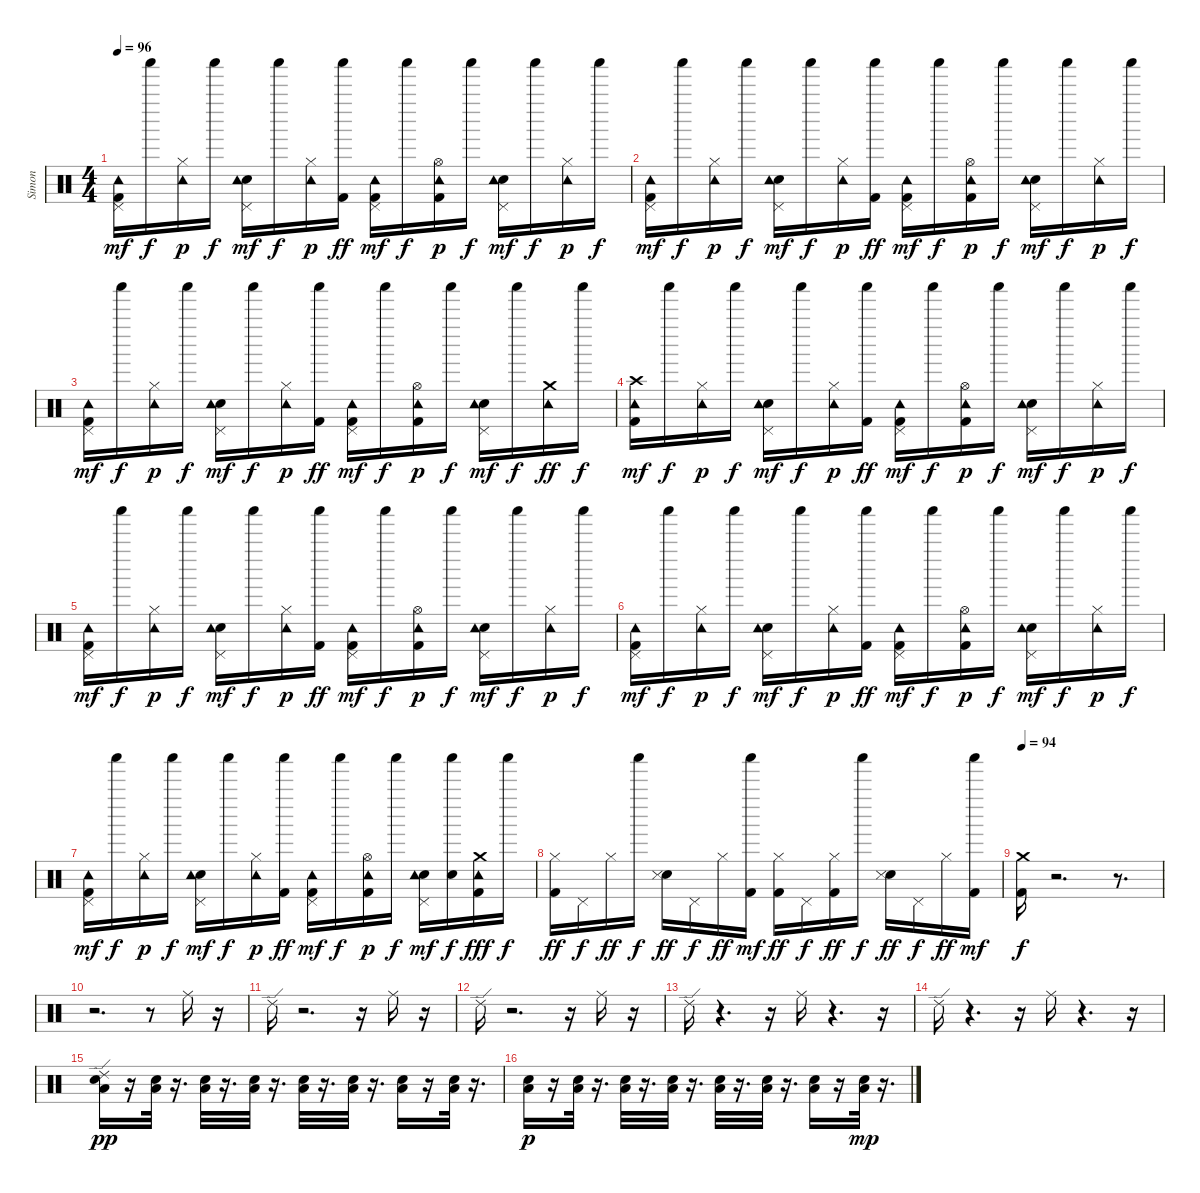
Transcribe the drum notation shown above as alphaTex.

\track ("Simon" "Simon") {instrument percussion}
\staff {score}
\articulation defaults
\ts (4 4)
\tempo 96
\clef neutral
\ks c
("Kick (hit) 2" "Pedal Hi-Hat (hit)" "Tambourine (hit)").16{dy mf} "Shaker (hit)".16{dy f} ("Hi-Hat (closed)" "Tambourine (hit)").16{dy p} "Shaker (hit)".16{dy f} ("Snare (hit) 2" "Pedal Hi-Hat (hit)" "Tambourine (hit)").16{dy mf} "Shaker (hit)".16{dy f} ("Hi-Hat (closed)" "Tambourine (hit)").16{dy p} ("Shaker (hit)" "Kick (hit) 2").16{dy ff} ("Kick (hit) 2" "Pedal Hi-Hat (hit)" "Tambourine (hit)").16{dy mf} "Shaker (hit)".16{dy f} ("Kick (hit) 2" "Hi-Hat (open)" "Tambourine (hit)").16{dy p} "Shaker (hit)".16{dy f} ("Snare (hit) 2" "Pedal Hi-Hat (hit)" "Tambourine (hit)").16{dy mf} "Shaker (hit)".16{dy f} ("Hi-Hat (closed)" "Tambourine (hit)").16{dy p} "Shaker (hit)".16{dy f} |
("Kick (hit) 2" "Tambourine (hit)" "Pedal Hi-Hat (hit)").16{dy mf} "Shaker (hit)".16{dy f} ("Hi-Hat (closed)" "Tambourine (hit)").16{dy p} "Shaker (hit)".16{dy f} ("Snare (hit) 2" "Pedal Hi-Hat (hit)" "Tambourine (hit)").16{dy mf} "Shaker (hit)".16{dy f} ("Hi-Hat (closed)" "Tambourine (hit)").16{dy p} ("Shaker (hit)" "Kick (hit) 2").16{dy ff} ("Kick (hit) 2" "Pedal Hi-Hat (hit)" "Tambourine (hit)").16{dy mf} "Shaker (hit)".16{dy f} ("Kick (hit) 2" "Hi-Hat (open)" "Tambourine (hit)").16{dy p} "Shaker (hit)".16{dy f} ("Snare (hit) 2" "Pedal Hi-Hat (hit)" "Tambourine (hit)").16{dy mf} "Shaker (hit)".16{dy f} ("Hi-Hat (closed)" "Tambourine (hit)").16{dy p} "Shaker (hit)".16{dy f} |
("Kick (hit) 2" "Pedal Hi-Hat (hit)" "Tambourine (hit)").16{dy mf} "Shaker (hit)".16{dy f} ("Hi-Hat (closed)" "Tambourine (hit)").16{dy p} "Shaker (hit)".16{dy f} ("Snare (hit) 2" "Pedal Hi-Hat (hit)" "Tambourine (hit)").16{dy mf} "Shaker (hit)".16{dy f} ("Hi-Hat (closed)" "Tambourine (hit)").16{dy p} ("Shaker (hit)" "Kick (hit) 2").16{dy ff} ("Kick (hit) 2" "Pedal Hi-Hat (hit)" "Tambourine (hit)").16{dy mf} "Shaker (hit)".16{dy f} ("Kick (hit) 2" "Hi-Hat (open)" "Tambourine (hit)").16{dy p} "Shaker (hit)".16{dy f} ("Snare (hit) 2" "Pedal Hi-Hat (hit)" "Tambourine (hit)").16{dy mf} "Shaker (hit)".16{dy f} ("Tambourine (hit)" "Crash medium (hit)").16{dy ff} "Shaker (hit)".16{dy f} |
("Kick (hit) 2" "Crash high (hit)" "Tambourine (hit)").16{dy mf} "Shaker (hit)".16{dy f} ("Hi-Hat (closed)" "Tambourine (hit)").16{dy p} "Shaker (hit)".16{dy f} ("Snare (hit) 2" "Pedal Hi-Hat (hit)" "Tambourine (hit)").16{dy mf} "Shaker (hit)".16{dy f} ("Hi-Hat (closed)" "Tambourine (hit)").16{dy p} ("Shaker (hit)" "Kick (hit) 2").16{dy ff} ("Kick (hit) 2" "Pedal Hi-Hat (hit)" "Tambourine (hit)").16{dy mf} "Shaker (hit)".16{dy f} ("Kick (hit) 2" "Hi-Hat (open)" "Tambourine (hit)").16{dy p} "Shaker (hit)".16{dy f} ("Snare (hit) 2" "Pedal Hi-Hat (hit)" "Tambourine (hit)").16{dy mf} "Shaker (hit)".16{dy f} ("Hi-Hat (closed)" "Tambourine (hit)").16{dy p} "Shaker (hit)".16{dy f} |
("Kick (hit) 2" "Pedal Hi-Hat (hit)" "Tambourine (hit)").16{dy mf} "Shaker (hit)".16{dy f} ("Hi-Hat (closed)" "Tambourine (hit)").16{dy p} "Shaker (hit)".16{dy f} ("Snare (hit) 2" "Pedal Hi-Hat (hit)" "Tambourine (hit)").16{dy mf} "Shaker (hit)".16{dy f} ("Hi-Hat (closed)" "Tambourine (hit)").16{dy p} ("Shaker (hit)" "Kick (hit) 2").16{dy ff} ("Kick (hit) 2" "Pedal Hi-Hat (hit)" "Tambourine (hit)").16{dy mf} "Shaker (hit)".16{dy f} ("Kick (hit) 2" "Hi-Hat (open)" "Tambourine (hit)").16{dy p} "Shaker (hit)".16{dy f} ("Snare (hit) 2" "Pedal Hi-Hat (hit)" "Tambourine (hit)").16{dy mf} "Shaker (hit)".16{dy f} ("Hi-Hat (closed)" "Tambourine (hit)").16{dy p} "Shaker (hit)".16{dy f} |
("Kick (hit) 2" "Tambourine (hit)" "Pedal Hi-Hat (hit)").16{dy mf} "Shaker (hit)".16{dy f} ("Hi-Hat (closed)" "Tambourine (hit)").16{dy p} "Shaker (hit)".16{dy f} ("Snare (hit) 2" "Pedal Hi-Hat (hit)" "Tambourine (hit)").16{dy mf} "Shaker (hit)".16{dy f} ("Hi-Hat (closed)" "Tambourine (hit)").16{dy p} ("Shaker (hit)" "Kick (hit) 2").16{dy ff} ("Kick (hit) 2" "Pedal Hi-Hat (hit)" "Tambourine (hit)").16{dy mf} "Shaker (hit)".16{dy f} ("Kick (hit) 2" "Hi-Hat (open)" "Tambourine (hit)").16{dy p} "Shaker (hit)".16{dy f} ("Snare (hit) 2" "Pedal Hi-Hat (hit)" "Tambourine (hit)").16{dy mf} "Shaker (hit)".16{dy f} ("Hi-Hat (closed)" "Tambourine (hit)").16{dy p} "Shaker (hit)".16{dy f} |
("Kick (hit) 2" "Pedal Hi-Hat (hit)" "Tambourine (hit)").16{dy mf} "Shaker (hit)".16{dy f} ("Hi-Hat (closed)" "Tambourine (hit)").16{dy p} "Shaker (hit)".16{dy f} ("Snare (hit) 2" "Pedal Hi-Hat (hit)" "Tambourine (hit)").16{dy mf} "Shaker (hit)".16{dy f} ("Hi-Hat (closed)" "Tambourine (hit)").16{dy p} ("Shaker (hit)" "Kick (hit) 2").16{dy ff} ("Kick (hit) 2" "Pedal Hi-Hat (hit)" "Tambourine (hit)").16{dy mf} "Shaker (hit)".16{dy f} ("Kick (hit) 2" "Hi-Hat (open)" "Tambourine (hit)").16{dy p} "Shaker (hit)".16{dy f} ("Snare (hit) 2" "Pedal Hi-Hat (hit)" "Tambourine (hit)").16{dy mf} ("Shaker (hit)" "Snare (hit) 2").16{dy f} ("Tambourine (hit)" "Crash medium (hit)" "Kick (hit) 2").16{dy fff} "Shaker (hit)".16{dy f} |
("Hi-Hat (closed)" "Kick (hit) 2").16{dy ff} "Pedal Hi-Hat (hit)".16{dy f} "Hi-Hat (closed)".16{dy ff} "Shaker (hit)".16{dy f} ("Electric Snare (hit)" "Snare (side stick) 3").16{dy ff} "Pedal Hi-Hat (hit)".16{dy f} "Hi-Hat (closed)".16{dy ff} ("Shaker (hit)" "Kick (hit) 2").16{dy mf} ("Hi-Hat (closed)" "Kick (hit) 2").16{dy ff} "Pedal Hi-Hat (hit)".16{dy f} ("Hi-Hat (closed)" "Kick (hit) 2").16{dy ff} "Shaker (hit)".16{dy f} ("Electric Snare (hit)" "Snare (side stick) 3").16{dy ff} "Pedal Hi-Hat (hit)".16{dy f} "Hi-Hat (closed)".16{dy ff} ("Shaker (hit)" "Kick (hit) 2").16{dy mf} |
\tempo 94
("Kick (hit) 2" "Crash medium (hit)").16{dy f} r.2{d} r.8{d} |
r.2{d} r.8 "Ride (middle)".16 r.16 |
"Ride (edge) 2".16 r.2{d} r.16 "Ride (middle)".16 r.16 |
"Ride (edge) 2".16 r.2{d} r.16 "Ride (middle)".16 r.16 |
"Ride (edge) 2".16 r.4{d} r.16 "Ride (middle)".16 r.4{d} r.16 |
"Ride (edge) 2".16 r.4{d} r.16 "Ride (middle)".16 r.4{d} r.16 |
("Ride (edge) 2" "Electric Snare (hit)" "Low Tom (hit)").16{dy pp} r.16 ("Electric Snare (hit)" "Low Tom (hit)").32 r.16{d} ("Electric Snare (hit)" "Low Tom (hit)").32 r.16{d} ("Electric Snare (hit)" "Low Tom (hit)").32 r.16{d} ("Electric Snare (hit)" "Low Tom (hit)").32 r.16{d} ("Electric Snare (hit)" "Low Tom (hit)").32 r.16{d} ("Electric Snare (hit)" "Low Tom (hit)").16 r.16 ("Electric Snare (hit)" "Low Tom (hit)").32 r.16{d} |
("Electric Snare (hit)" "Low Tom (hit)").16{dy p} r.16 ("Electric Snare (hit)" "Low Tom (hit)").32 r.16{d} ("Electric Snare (hit)" "Low Tom (hit)").32 r.16{d} ("Electric Snare (hit)" "Low Tom (hit)").32 r.16{d} ("Electric Snare (hit)" "Low Tom (hit)").32 r.16{d} ("Electric Snare (hit)" "Low Tom (hit)").32 r.16{d} ("Electric Snare (hit)" "Low Tom (hit)").16 r.16 ("Electric Snare (hit)" "Low Tom (hit)").32{dy mp} r.16{d}
